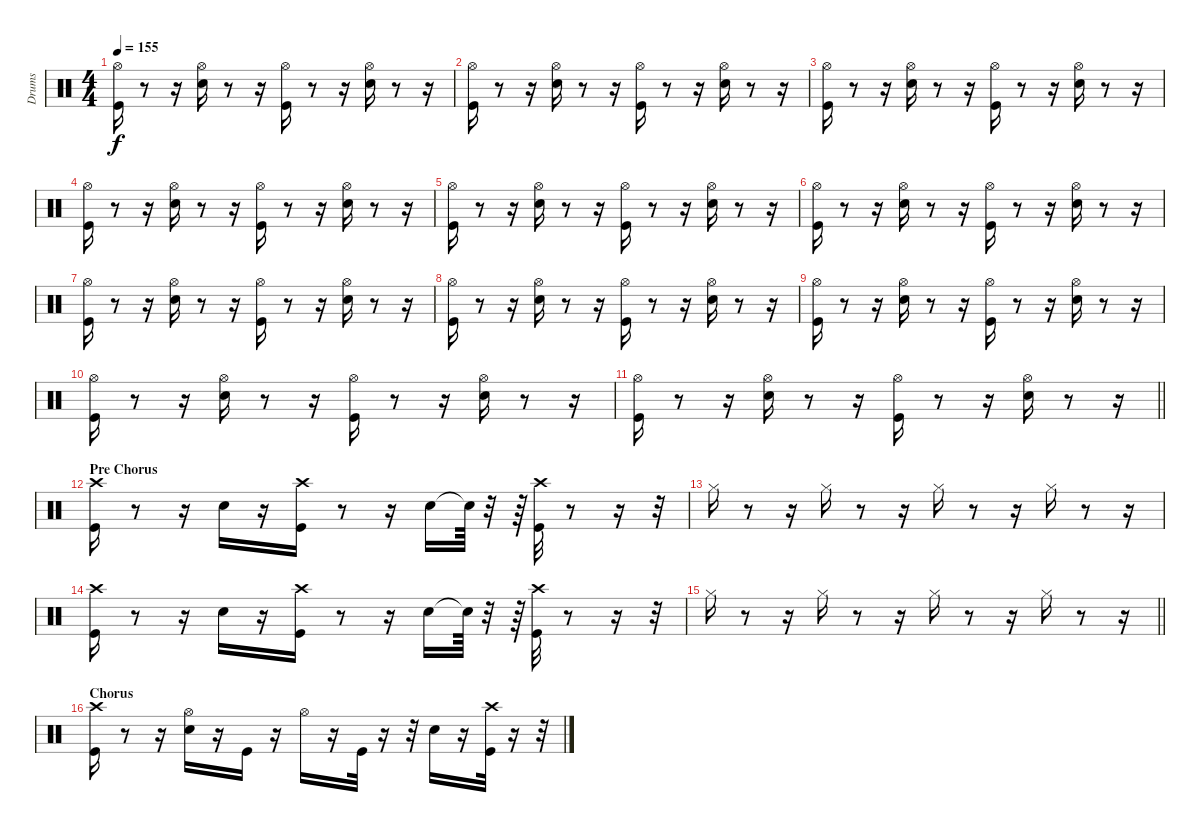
\track ("Drums" "Drums") {instrument percussion}
\staff {score}
\articulation defaults
\ts (4 4)
\tempo 155
\clef neutral
\ks c
("Hi-Hat (open)" "Kick (hit)").16{dy f} r.8 r.16 ("Hi-Hat (open)" "Snare (hit) 2").16 r.8 r.16 ("Kick (hit)" "Hi-Hat (open)").16 r.8 r.16 ("Snare (hit) 2" "Hi-Hat (open)").16 r.8 r.16 |
("Hi-Hat (open)" "Kick (hit)").16 r.8 r.16 ("Hi-Hat (open)" "Snare (hit) 2").16 r.8 r.16 ("Kick (hit)" "Hi-Hat (open)").16 r.8 r.16 ("Snare (hit) 2" "Hi-Hat (open)").16 r.8 r.16 |
("Hi-Hat (open)" "Kick (hit)").16 r.8 r.16 ("Hi-Hat (open)" "Snare (hit) 2").16 r.8 r.16 ("Kick (hit)" "Hi-Hat (open)").16 r.8 r.16 ("Snare (hit) 2" "Hi-Hat (open)").16 r.8 r.16 |
("Hi-Hat (open)" "Kick (hit)").16 r.8 r.16 ("Hi-Hat (open)" "Snare (hit) 2").16 r.8 r.16 ("Kick (hit)" "Hi-Hat (open)").16 r.8 r.16 ("Snare (hit) 2" "Hi-Hat (open)").16 r.8 r.16 |
("Hi-Hat (open)" "Kick (hit)").16 r.8 r.16 ("Hi-Hat (open)" "Snare (hit) 2").16 r.8 r.16 ("Kick (hit)" "Hi-Hat (open)").16 r.8 r.16 ("Snare (hit) 2" "Hi-Hat (open)").16 r.8 r.16 |
("Hi-Hat (open)" "Kick (hit)").16 r.8 r.16 ("Hi-Hat (open)" "Snare (hit) 2").16 r.8 r.16 ("Kick (hit)" "Hi-Hat (open)").16 r.8 r.16 ("Snare (hit) 2" "Hi-Hat (open)").16 r.8 r.16 |
("Hi-Hat (open)" "Kick (hit)").16 r.8 r.16 ("Hi-Hat (open)" "Snare (hit) 2").16 r.8 r.16 ("Kick (hit)" "Hi-Hat (open)").16 r.8 r.16 ("Snare (hit) 2" "Hi-Hat (open)").16 r.8 r.16 |
("Hi-Hat (open)" "Kick (hit)").16 r.8 r.16 ("Hi-Hat (open)" "Snare (hit) 2").16 r.8 r.16 ("Kick (hit)" "Hi-Hat (open)").16 r.8 r.16 ("Snare (hit) 2" "Hi-Hat (open)").16 r.8 r.16 |
("Hi-Hat (open)" "Kick (hit)").16 r.8 r.16 ("Hi-Hat (open)" "Snare (hit) 2").16 r.8 r.16 ("Kick (hit)" "Hi-Hat (open)").16 r.8 r.16 ("Snare (hit) 2" "Hi-Hat (open)").16 r.8 r.16 |
("Hi-Hat (open)" "Kick (hit)").16 r.8 r.16 ("Hi-Hat (open)" "Snare (hit) 2").16 r.8 r.16 ("Kick (hit)" "Hi-Hat (open)").16 r.8 r.16 ("Snare (hit) 2" "Hi-Hat (open)").16 r.8 r.16 |
\barLineRight lightlight
("Hi-Hat (open)" "Kick (hit)").16 r.8 r.16 ("Hi-Hat (open)" "Snare (hit) 2").16 r.8 r.16 ("Kick (hit)" "Hi-Hat (open)").16 r.8 r.16 ("Snare (hit) 2" "Hi-Hat (open)").16 r.8 r.16 |
\section ("" "Pre Chorus")
("Crash high (hit)" "Kick (hit)").16 r.8 r.16 "Snare (hit) 2".16 r.16 ("Kick (hit)" "Crash high (hit)").16 r.8 r.16 "Snare (hit) 2".16 "Snare (hit)"{t}.64 r.32 r.64 ("Kick (hit)" "Crash high (hit)").32 r.8 r.16 r.32 |
"Hi-Hat (closed)".16 r.8 r.16 "Hi-Hat (closed)".16 r.8 r.16 "Hi-Hat (closed)".16 r.8 r.16 "Hi-Hat (closed)".16 r.8 r.16 |
("Kick (hit)" "Crash high (hit)").16 r.8 r.16 "Snare (hit) 2".16 r.16 ("Kick (hit)" "Crash high (hit)").16 r.8 r.16 "Snare (hit) 2".16 "Snare (hit)"{t}.64 r.32 r.64 ("Kick (hit)" "Crash high (hit)").32 r.8 r.16 r.32 |
\barLineRight lightlight "Hi-Hat (closed)".16
r.8 r.16 "Hi-Hat (closed)".16 r.8 r.16 "Hi-Hat (closed)".16 r.8 r.16 "Hi-Hat (closed)".16 r.8 r.16 |
\section ("" "Chorus")
("Kick (hit)" "Crash high (hit)").16 r.8 r.16 ("Hi-Hat (open)" "Snare (hit) 2").16 r.16 "Kick (hit)".16 r.16 "Hi-Hat (open)".16 r.16 "Kick (hit)".32 r.16 r.32 "Snare (hit) 2".16 r.16 ("Kick (hit)" "Crash high (hit)").32 r.16 r.32
